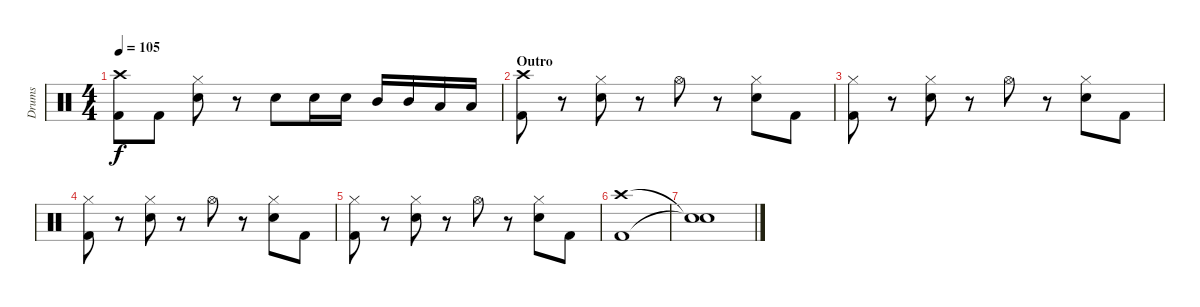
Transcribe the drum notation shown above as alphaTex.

\track ("Drums" "Drums") {instrument percussion}
\staff {score}
\articulation defaults
\ts (4 4)
\tempo 105
\clef neutral
\ks c
("Crash high (hit)" "Kick (hit) 2").8{dy f} "Kick (hit) 2".8 ("Hi-Hat (closed)" "Electric Snare (hit)").8 r.8 "Electric Snare (hit)".8 "Electric Snare (hit)".16 "Electric Snare (hit)".16 "Mid Tom (hit)".16 "Mid Tom (hit)".16 "Low Tom (hit)".16 "Low Tom (hit)".16 |
\section ("" "Outro")
("Crash high (hit)" "Kick (hit) 2").8 r.8 ("Hi-Hat (closed)" "Electric Snare (hit)").8 r.8 "Hi-Hat (open)".8 r.8 ("Hi-Hat (closed)" "Electric Snare (hit)").8 "Kick (hit) 2".8 |
("Hi-Hat (closed)" "Kick (hit) 2").8 r.8 ("Hi-Hat (closed)" "Electric Snare (hit)").8 r.8 "Hi-Hat (open)".8 r.8 ("Hi-Hat (closed)" "Electric Snare (hit)").8 "Kick (hit) 2".8 |
("Hi-Hat (closed)" "Kick (hit) 2").8 r.8 ("Hi-Hat (closed)" "Electric Snare (hit)").8 r.8 "Hi-Hat (open)".8 r.8 ("Hi-Hat (closed)" "Electric Snare (hit)").8 "Kick (hit) 2".8 |
("Hi-Hat (closed)" "Kick (hit) 2").8 r.8 ("Hi-Hat (closed)" "Electric Snare (hit)").8 r.8 "Hi-Hat (open)".8 r.8 ("Hi-Hat (closed)" "Electric Snare (hit)").8 "Kick (hit) 2".8 |
("Crash high (hit)" "Kick (hit) 2").1 |
("Snare (hit)"{t} "Snare (hit)"{t}).1
